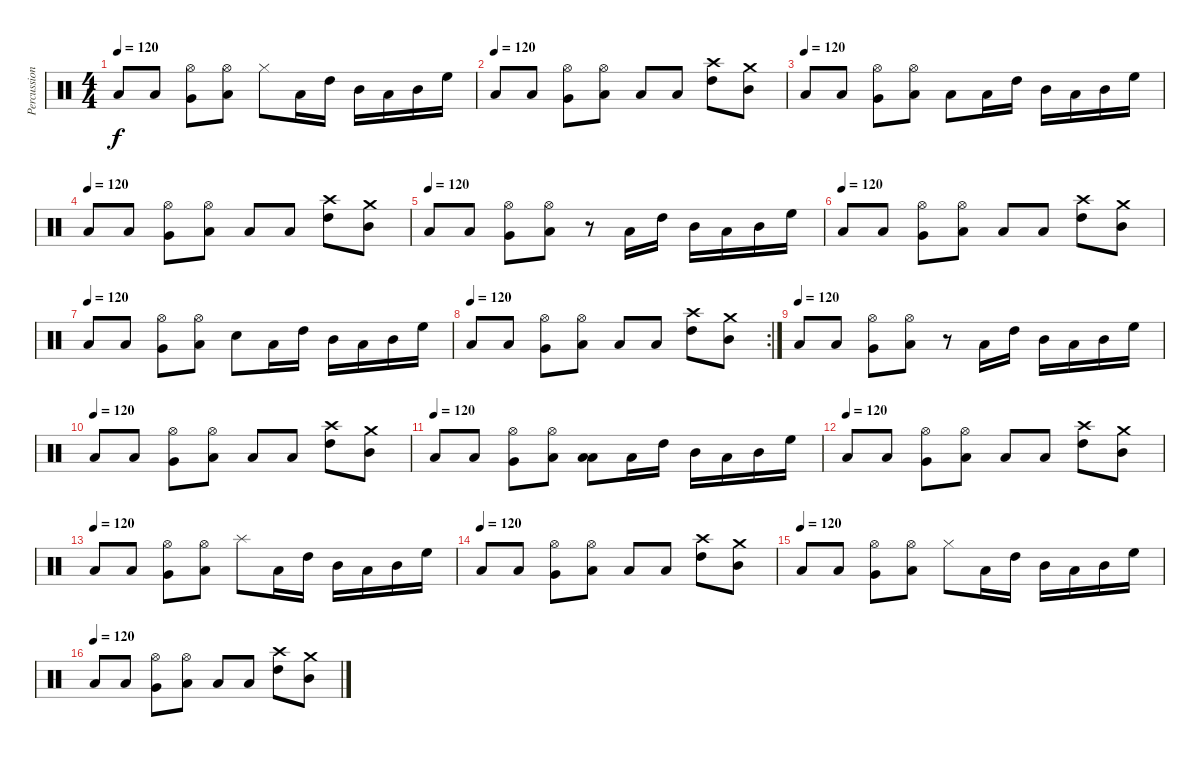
\track ("Percussion" "Percussion") {instrument percussion}
\staff {score}
\articulation defaults
\ts (4 4)
\tempo 120
\clef neutral
\ks c "Low Floor Tom (hit)".8{dy f} "Low Floor Tom (hit)".8
("Very Low Tom (hit)" "Hi-Hat (open)").8 ("Low Tom (hit)" "Hi-Hat (open)").8 "Hi-Hat (closed)".8 "Low Floor Tom (hit)".16 "High Tom (hit)".16 "Mid Tom (hit)".16 "Low Tom (hit)".16 "Mid Tom (hit)".16 "High Floor Tom (hit)".16 |
\tempo (120)
"Low Floor Tom (hit)".8 "Low Floor Tom (hit)".8 ("Very Low Tom (hit)" "Hi-Hat (open)").8 ("Low Tom (hit)" "Hi-Hat (open)").8 "Low Floor Tom (hit)".8 "Low Floor Tom (hit)".8 ("High Tom (hit)" "Crash high (hit)").8 ("Mid Tom (hit)" "Crash medium (hit)").8 |
\tempo (120)
"Low Floor Tom (hit)".8 "Low Floor Tom (hit)".8 ("Very Low Tom (hit)" "Hi-Hat (open)").8 ("Low Tom (hit)" "Hi-Hat (open)").8 "Low Tom (hit)".8 "Low Floor Tom (hit)".16 "High Tom (hit)".16 "Mid Tom (hit)".16 "Low Tom (hit)".16 "Mid Tom (hit)".16 "High Floor Tom (hit)".16 |
\tempo (120)
"Low Floor Tom (hit)".8 "Low Floor Tom (hit)".8 ("Very Low Tom (hit)" "Hi-Hat (open)").8 ("Low Tom (hit)" "Hi-Hat (open)").8 "Low Floor Tom (hit)".8 "Low Floor Tom (hit)".8 ("High Tom (hit)" "Crash high (hit)").8 ("Mid Tom (hit)" "Crash medium (hit)").8 |
\tempo (120)
"Low Floor Tom (hit)".8 "Low Floor Tom (hit)".8 ("Very Low Tom (hit)" "Hi-Hat (open)").8 ("Low Tom (hit)" "Hi-Hat (open)").8 r.8 "Low Floor Tom (hit)".16 "High Tom (hit)".16 "Mid Tom (hit)".16 "Low Tom (hit)".16 "Mid Tom (hit)".16 "High Floor Tom (hit)".16 |
\tempo (120)
"Low Floor Tom (hit)".8 "Low Floor Tom (hit)".8 ("Very Low Tom (hit)" "Hi-Hat (open)").8 ("Low Tom (hit)" "Hi-Hat (open)").8 "Low Floor Tom (hit)".8 "Low Floor Tom (hit)".8 ("High Tom (hit)" "Crash high (hit)").8 ("Mid Tom (hit)" "Crash medium (hit)").8 |
\tempo (120)
"Low Floor Tom (hit)".8 "Low Floor Tom (hit)".8 ("Very Low Tom (hit)" "Hi-Hat (open)").8 ("Low Tom (hit)" "Hi-Hat (open)").8 "Electric Snare (hit)".8 "Low Floor Tom (hit)".16 "High Tom (hit)".16 "Mid Tom (hit)".16 "Low Tom (hit)".16 "Mid Tom (hit)".16 "High Floor Tom (hit)".16 |
\rc 2
\tempo (120)
"Low Floor Tom (hit)".8 "Low Floor Tom (hit)".8 ("Very Low Tom (hit)" "Hi-Hat (open)").8 ("Low Tom (hit)" "Hi-Hat (open)").8 "Low Floor Tom (hit)".8 "Low Floor Tom (hit)".8 ("High Tom (hit)" "Crash high (hit)").8 ("Mid Tom (hit)" "Crash medium (hit)").8 |
\tempo (120)
"Low Floor Tom (hit)".8 "Low Floor Tom (hit)".8 ("Very Low Tom (hit)" "Hi-Hat (open)").8 ("Low Tom (hit)" "Hi-Hat (open)").8 r.8 "Low Floor Tom (hit)".16 "High Tom (hit)".16 "Mid Tom (hit)".16 "Low Tom (hit)".16 "Mid Tom (hit)".16 "High Floor Tom (hit)".16 |
\tempo (120)
"Low Floor Tom (hit)".8 "Low Floor Tom (hit)".8 ("Very Low Tom (hit)" "Hi-Hat (open)").8 ("Low Tom (hit)" "Hi-Hat (open)").8 "Low Floor Tom (hit)".8 "Low Floor Tom (hit)".8 ("High Tom (hit)" "Crash high (hit)").8 ("Mid Tom (hit)" "Crash medium (hit)").8 |
\tempo (120)
"Low Floor Tom (hit)".8 "Low Floor Tom (hit)".8 ("Very Low Tom (hit)" "Hi-Hat (open)").8 ("Low Tom (hit)" "Hi-Hat (open)").8 ("Low Floor Tom (hit)" "Low Tom (hit)").8 "Low Floor Tom (hit)".16 "High Tom (hit)".16 "Mid Tom (hit)".16 "Low Tom (hit)".16 "Mid Tom (hit)".16 "High Floor Tom (hit)".16 |
\tempo (120)
"Low Floor Tom (hit)".8 "Low Floor Tom (hit)".8 ("Very Low Tom (hit)" "Hi-Hat (open)").8 ("Low Tom (hit)" "Hi-Hat (open)").8 "Low Floor Tom (hit)".8 "Low Floor Tom (hit)".8 ("High Tom (hit)" "Crash high (hit)").8 ("Mid Tom (hit)" "Crash medium (hit)").8 |
\tempo (120)
"Low Floor Tom (hit)".8 "Low Floor Tom (hit)".8 ("Very Low Tom (hit)" "Hi-Hat (open)").8 ("Low Tom (hit)" "Hi-Hat (open)").8 "Splash (hit)".8 "Low Floor Tom (hit)".16 "High Tom (hit)".16 "Mid Tom (hit)".16 "Low Tom (hit)".16 "Mid Tom (hit)".16 "High Floor Tom (hit)".16 |
\tempo (120)
"Low Floor Tom (hit)".8 "Low Floor Tom (hit)".8 ("Very Low Tom (hit)" "Hi-Hat (open)").8 ("Low Tom (hit)" "Hi-Hat (open)").8 "Low Floor Tom (hit)".8 "Low Floor Tom (hit)".8 ("High Tom (hit)" "Crash high (hit)").8 ("Mid Tom (hit)" "Crash medium (hit)").8 |
\tempo (120)
"Low Floor Tom (hit)".8 "Low Floor Tom (hit)".8 ("Very Low Tom (hit)" "Hi-Hat (open)").8 ("Low Tom (hit)" "Hi-Hat (open)").8 "Hi-Hat (closed)".8 "Low Floor Tom (hit)".16 "High Tom (hit)".16 "Mid Tom (hit)".16 "Low Tom (hit)".16 "Mid Tom (hit)".16 "High Floor Tom (hit)".16 |
\tempo (120)
"Low Floor Tom (hit)".8 "Low Floor Tom (hit)".8 ("Very Low Tom (hit)" "Hi-Hat (open)").8 ("Low Tom (hit)" "Hi-Hat (open)").8 "Low Floor Tom (hit)".8 "Low Floor Tom (hit)".8 ("High Tom (hit)" "Crash high (hit)").8 ("Mid Tom (hit)" "Crash medium (hit)").8
